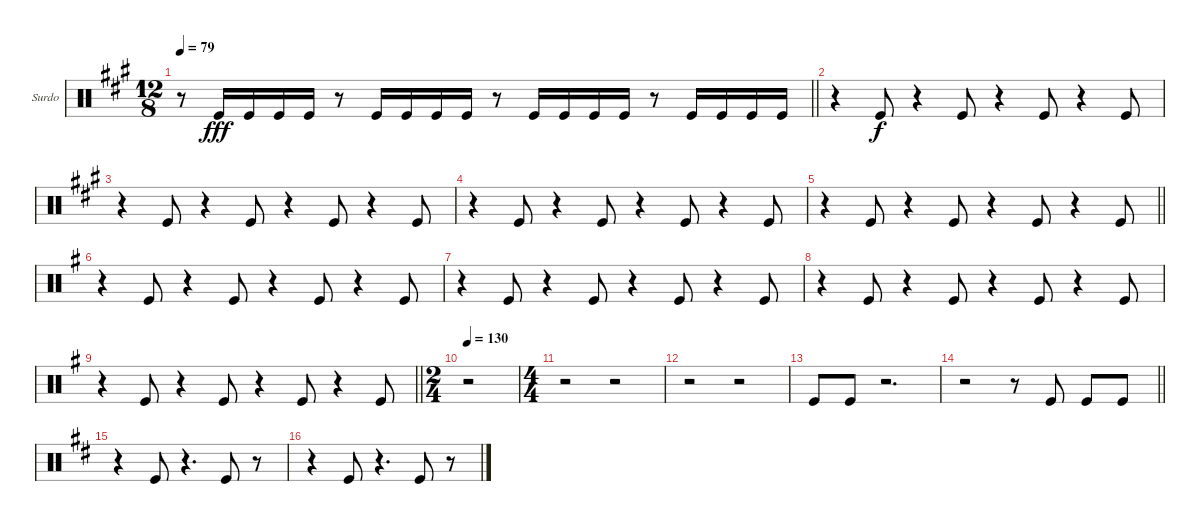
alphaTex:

\bracketExtendMode groupsimilarinstruments
\firstSystemTrackNameOrientation horizontal
\otherSystemsTrackNameOrientation horizontal
\track ("Surdo" "Surdo") {instrument percussion}
\staff {score}
\articulation defaults
\ts (12 8)
\tempo 79
\clef neutral
\barLineRight lightlight
\ks f#minor
r.8{dy fff} "Kick (hit)".16 "Kick (hit)".16 "Kick (hit)".16 "Kick (hit)".16 r.8 "Kick (hit)".16 "Kick (hit)".16 "Kick (hit)".16 "Kick (hit)".16 r.8 "Kick (hit)".16 "Kick (hit)".16 "Kick (hit)".16 "Kick (hit)".16 r.8 "Kick (hit)".16 "Kick (hit)".16 "Kick (hit)".16 "Kick (hit)".16 |
r.4 "Kick (hit)".8{dy f} r.4 "Kick (hit)".8 r.4 "Kick (hit)".8 r.4 "Kick (hit)".8 |
r.4 "Kick (hit)".8 r.4 "Kick (hit)".8 r.4 "Kick (hit)".8 r.4 "Kick (hit)".8 |
r.4 "Kick (hit)".8 r.4 "Kick (hit)".8 r.4 "Kick (hit)".8 r.4 "Kick (hit)".8 |
\barLineRight lightlight
r.4 "Kick (hit)".8 r.4 "Kick (hit)".8 r.4 "Kick (hit)".8 r.4 "Kick (hit)".8 |
\ks eminor
r.4 "Kick (hit)".8 r.4 "Kick (hit)".8 r.4 "Kick (hit)".8 r.4 "Kick (hit)".8 |
r.4 "Kick (hit)".8 r.4 "Kick (hit)".8 r.4 "Kick (hit)".8 r.4 "Kick (hit)".8 |
r.4 "Kick (hit)".8 r.4 "Kick (hit)".8 r.4 "Kick (hit)".8 r.4 "Kick (hit)".8 |
\barLineRight lightlight
r.4 "Kick (hit)".8 r.4 "Kick (hit)".8 r.4 "Kick (hit)".8 r.4 "Kick (hit)".8 |
\ts (2 4)
\beaming (8 2 2)
\tempo 130
r.2 |
\ts (4 4)
\beaming (8 2 2 2 2)
r.2 r.2 |
r.2 r.2 |
"Kick (hit)".8 "Kick (hit)".8 r.2{d} |
\barLineRight lightlight
r.2 r.8 "Kick (hit)".8 "Kick (hit)".8 "Kick (hit)".8 |
\ks bminor
r.4 "Kick (hit)".8 r.4{d} "Kick (hit)".8 r.8 |
r.4 "Kick (hit)".8 r.4{d} "Kick (hit)".8 r.8
